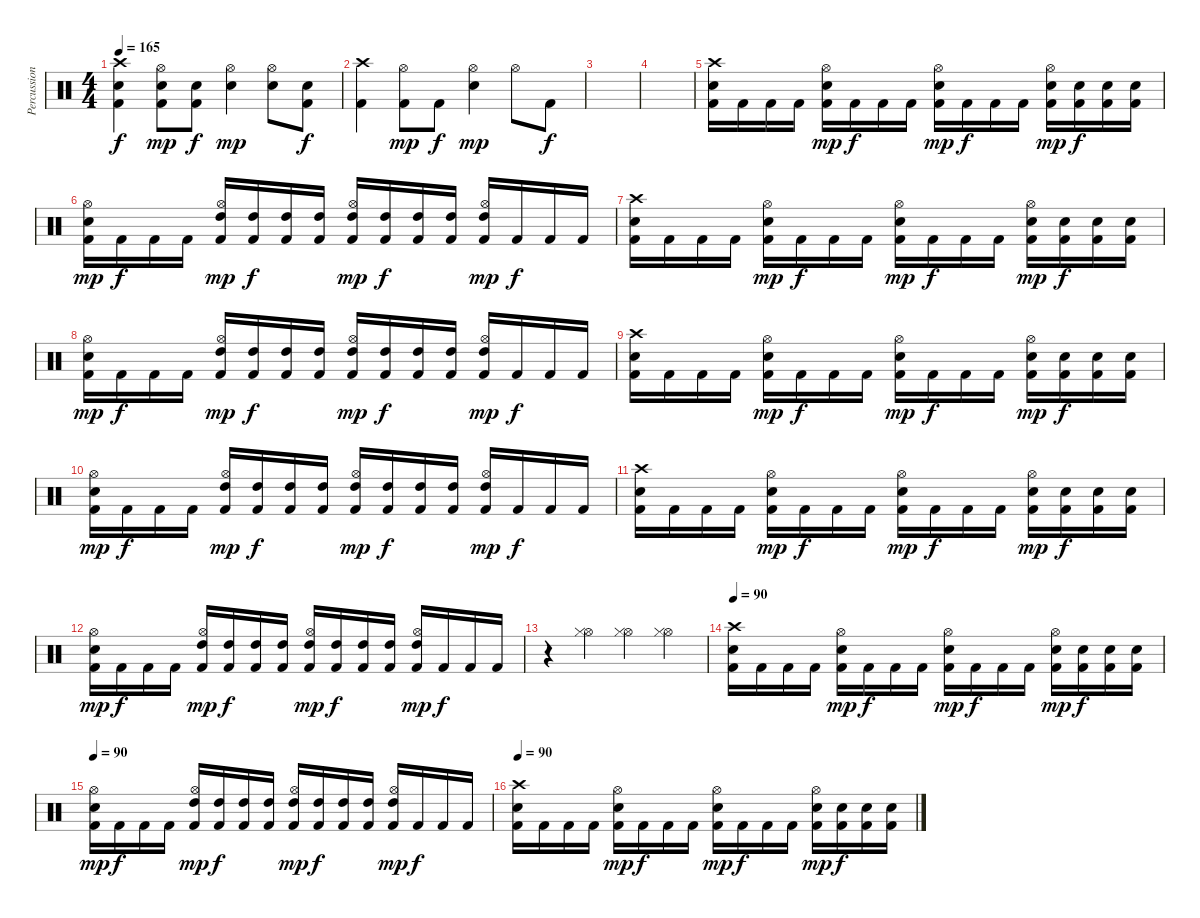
\track ("Percussions" "Percussion") {instrument percussion}
\staff {score}
\articulation defaults
\ts (4 4)
\tempo 165
\clef neutral
\ks c
("Crash high (hit)" "Electric Snare (hit)" "Kick (hit) 2").4{dy f} ("Hi-Hat (open)" "Electric Snare (hit)" "Kick (hit) 2").8{dy mp} ("Electric Snare (hit)" "Kick (hit) 2").8{dy f} ("Hi-Hat (open)" "Electric Snare (hit)").4{dy mp} ("Hi-Hat (open)" "Electric Snare (hit)").8 ("Electric Snare (hit)" "Kick (hit) 2").8{dy f} |
("Crash high (hit)" "Kick (hit) 2").4 ("Hi-Hat (open)" "Kick (hit) 2").8{dy mp} "Kick (hit) 2".8{dy f} ("Hi-Hat (open)" "Electric Snare (hit)").4{dy mp} "Hi-Hat (open)".8 "Kick (hit) 2".8{dy f} |
|
|
("Crash high (hit)" "Electric Snare (hit)" "Kick (hit) 2").16 "Kick (hit) 2".16 "Kick (hit) 2".16 "Kick (hit) 2".16 ("Hi-Hat (open)" "Electric Snare (hit)" "Kick (hit) 2").16{dy mp} "Kick (hit) 2".16{dy f} "Kick (hit) 2".16 "Kick (hit) 2".16 ("Hi-Hat (open)" "Electric Snare (hit)" "Kick (hit) 2").16{dy mp} "Kick (hit) 2".16{dy f} "Kick (hit) 2".16 "Kick (hit) 2".16 ("Hi-Hat (open)" "Electric Snare (hit)" "Kick (hit) 2").16{dy mp} ("Electric Snare (hit)" "Kick (hit) 2").16{dy f} ("Electric Snare (hit)" "Kick (hit) 2").16 ("Electric Snare (hit)" "Kick (hit) 2").16 |
("Hi-Hat (open)" "Electric Snare (hit)" "Kick (hit) 2").16{dy mp} "Kick (hit) 2".16{dy f} "Kick (hit) 2".16 "Kick (hit) 2".16 ("Hi-Hat (open)" "High Tom (hit)" "Kick (hit) 2").16{dy mp} ("High Tom (hit)" "Kick (hit) 2").16{dy f} ("High Tom (hit)" "Kick (hit) 2").16 ("High Tom (hit)" "Kick (hit) 2").16 ("Hi-Hat (open)" "High Tom (hit)" "Kick (hit) 2").16{dy mp} ("High Tom (hit)" "Kick (hit) 2").16{dy f} ("High Tom (hit)" "Kick (hit) 2").16 ("High Tom (hit)" "Kick (hit) 2").16 ("Hi-Hat (open)" "High Tom (hit)" "Kick (hit) 2").16{dy mp} "Kick (hit) 2".16{dy f} "Kick (hit) 2".16 "Kick (hit) 2".16 |
("Crash high (hit)" "Electric Snare (hit)" "Kick (hit) 2").16 "Kick (hit) 2".16 "Kick (hit) 2".16 "Kick (hit) 2".16 ("Hi-Hat (open)" "Electric Snare (hit)" "Kick (hit) 2").16{dy mp} "Kick (hit) 2".16{dy f} "Kick (hit) 2".16 "Kick (hit) 2".16 ("Hi-Hat (open)" "Electric Snare (hit)" "Kick (hit) 2").16{dy mp} "Kick (hit) 2".16{dy f} "Kick (hit) 2".16 "Kick (hit) 2".16 ("Hi-Hat (open)" "Electric Snare (hit)" "Kick (hit) 2").16{dy mp} ("Electric Snare (hit)" "Kick (hit) 2").16{dy f} ("Electric Snare (hit)" "Kick (hit) 2").16 ("Electric Snare (hit)" "Kick (hit) 2").16 |
("Hi-Hat (open)" "Electric Snare (hit)" "Kick (hit) 2").16{dy mp} "Kick (hit) 2".16{dy f} "Kick (hit) 2".16 "Kick (hit) 2".16 ("Hi-Hat (open)" "High Tom (hit)" "Kick (hit) 2").16{dy mp} ("High Tom (hit)" "Kick (hit) 2").16{dy f} ("High Tom (hit)" "Kick (hit) 2").16 ("High Tom (hit)" "Kick (hit) 2").16 ("Hi-Hat (open)" "High Tom (hit)" "Kick (hit) 2").16{dy mp} ("High Tom (hit)" "Kick (hit) 2").16{dy f} ("High Tom (hit)" "Kick (hit) 2").16 ("High Tom (hit)" "Kick (hit) 2").16 ("Hi-Hat (open)" "High Tom (hit)" "Kick (hit) 2").16{dy mp} "Kick (hit) 2".16{dy f} "Kick (hit) 2".16 "Kick (hit) 2".16 |
("Crash high (hit)" "Electric Snare (hit)" "Kick (hit) 2").16 "Kick (hit) 2".16 "Kick (hit) 2".16 "Kick (hit) 2".16 ("Hi-Hat (open)" "Electric Snare (hit)" "Kick (hit) 2").16{dy mp} "Kick (hit) 2".16{dy f} "Kick (hit) 2".16 "Kick (hit) 2".16 ("Hi-Hat (open)" "Electric Snare (hit)" "Kick (hit) 2").16{dy mp} "Kick (hit) 2".16{dy f} "Kick (hit) 2".16 "Kick (hit) 2".16 ("Hi-Hat (open)" "Electric Snare (hit)" "Kick (hit) 2").16{dy mp} ("Electric Snare (hit)" "Kick (hit) 2").16{dy f} ("Electric Snare (hit)" "Kick (hit) 2").16 ("Electric Snare (hit)" "Kick (hit) 2").16 |
("Hi-Hat (open)" "Electric Snare (hit)" "Kick (hit) 2").16{dy mp} "Kick (hit) 2".16{dy f} "Kick (hit) 2".16 "Kick (hit) 2".16 ("Hi-Hat (open)" "High Tom (hit)" "Kick (hit) 2").16{dy mp} ("High Tom (hit)" "Kick (hit) 2").16{dy f} ("High Tom (hit)" "Kick (hit) 2").16 ("High Tom (hit)" "Kick (hit) 2").16 ("Hi-Hat (open)" "High Tom (hit)" "Kick (hit) 2").16{dy mp} ("High Tom (hit)" "Kick (hit) 2").16{dy f} ("High Tom (hit)" "Kick (hit) 2").16 ("High Tom (hit)" "Kick (hit) 2").16 ("Hi-Hat (open)" "High Tom (hit)" "Kick (hit) 2").16{dy mp} "Kick (hit) 2".16{dy f} "Kick (hit) 2".16 "Kick (hit) 2".16 |
("Crash high (hit)" "Electric Snare (hit)" "Kick (hit) 2").16 "Kick (hit) 2".16 "Kick (hit) 2".16 "Kick (hit) 2".16 ("Hi-Hat (open)" "Electric Snare (hit)" "Kick (hit) 2").16{dy mp} "Kick (hit) 2".16{dy f} "Kick (hit) 2".16 "Kick (hit) 2".16 ("Hi-Hat (open)" "Electric Snare (hit)" "Kick (hit) 2").16{dy mp} "Kick (hit) 2".16{dy f} "Kick (hit) 2".16 "Kick (hit) 2".16 ("Hi-Hat (open)" "Electric Snare (hit)" "Kick (hit) 2").16{dy mp} ("Electric Snare (hit)" "Kick (hit) 2").16{dy f} ("Electric Snare (hit)" "Kick (hit) 2").16 ("Electric Snare (hit)" "Kick (hit) 2").16 |
("Hi-Hat (open)" "Electric Snare (hit)" "Kick (hit) 2").16{dy mp} "Kick (hit) 2".16{dy f} "Kick (hit) 2".16 "Kick (hit) 2".16 ("Hi-Hat (open)" "High Tom (hit)" "Kick (hit) 2").16{dy mp} ("High Tom (hit)" "Kick (hit) 2").16{dy f} ("High Tom (hit)" "Kick (hit) 2").16 ("High Tom (hit)" "Kick (hit) 2").16 ("Hi-Hat (open)" "High Tom (hit)" "Kick (hit) 2").16{dy mp} ("High Tom (hit)" "Kick (hit) 2").16{dy f} ("High Tom (hit)" "Kick (hit) 2").16 ("High Tom (hit)" "Kick (hit) 2").16 ("Hi-Hat (open)" "High Tom (hit)" "Kick (hit) 2").16{dy mp} "Kick (hit) 2".16{dy f} "Kick (hit) 2".16 "Kick (hit) 2".16 |
r.4 ("Hi-Hat (open)" "Hi-Hat (closed)").4 ("Hi-Hat (open)" "Hi-Hat (closed)").4 ("Hi-Hat (open)" "Hi-Hat (closed)").4 |
\tempo 90
("Crash high (hit)" "Electric Snare (hit)" "Kick (hit) 2").16 "Kick (hit) 2".16 "Kick (hit) 2".16 "Kick (hit) 2".16 ("Hi-Hat (open)" "Electric Snare (hit)" "Kick (hit) 2").16{dy mp} "Kick (hit) 2".16{dy f} "Kick (hit) 2".16 "Kick (hit) 2".16 ("Hi-Hat (open)" "Electric Snare (hit)" "Kick (hit) 2").16{dy mp} "Kick (hit) 2".16{dy f} "Kick (hit) 2".16 "Kick (hit) 2".16 ("Hi-Hat (open)" "Electric Snare (hit)" "Kick (hit) 2").16{dy mp} ("Electric Snare (hit)" "Kick (hit) 2").16{dy f} ("Electric Snare (hit)" "Kick (hit) 2").16 ("Electric Snare (hit)" "Kick (hit) 2").16 |
\tempo 90
("Hi-Hat (open)" "Electric Snare (hit)" "Kick (hit) 2").16{dy mp} "Kick (hit) 2".16{dy f} "Kick (hit) 2".16 "Kick (hit) 2".16 ("Hi-Hat (open)" "High Tom (hit)" "Kick (hit) 2").16{dy mp} ("High Tom (hit)" "Kick (hit) 2").16{dy f} ("High Tom (hit)" "Kick (hit) 2").16 ("High Tom (hit)" "Kick (hit) 2").16 ("Hi-Hat (open)" "High Tom (hit)" "Kick (hit) 2").16{dy mp} ("High Tom (hit)" "Kick (hit) 2").16{dy f} ("High Tom (hit)" "Kick (hit) 2").16 ("High Tom (hit)" "Kick (hit) 2").16 ("Hi-Hat (open)" "High Tom (hit)" "Kick (hit) 2").16{dy mp} "Kick (hit) 2".16{dy f} "Kick (hit) 2".16 "Kick (hit) 2".16 |
\tempo 90
("Crash high (hit)" "Electric Snare (hit)" "Kick (hit) 2").16 "Kick (hit) 2".16 "Kick (hit) 2".16 "Kick (hit) 2".16 ("Hi-Hat (open)" "Electric Snare (hit)" "Kick (hit) 2").16{dy mp} "Kick (hit) 2".16{dy f} "Kick (hit) 2".16 "Kick (hit) 2".16 ("Hi-Hat (open)" "Electric Snare (hit)" "Kick (hit) 2").16{dy mp} "Kick (hit) 2".16{dy f} "Kick (hit) 2".16 "Kick (hit) 2".16 ("Hi-Hat (open)" "Electric Snare (hit)" "Kick (hit) 2").16{dy mp} ("Electric Snare (hit)" "Kick (hit) 2").16{dy f} ("Electric Snare (hit)" "Kick (hit) 2").16 ("Electric Snare (hit)" "Kick (hit) 2").16
